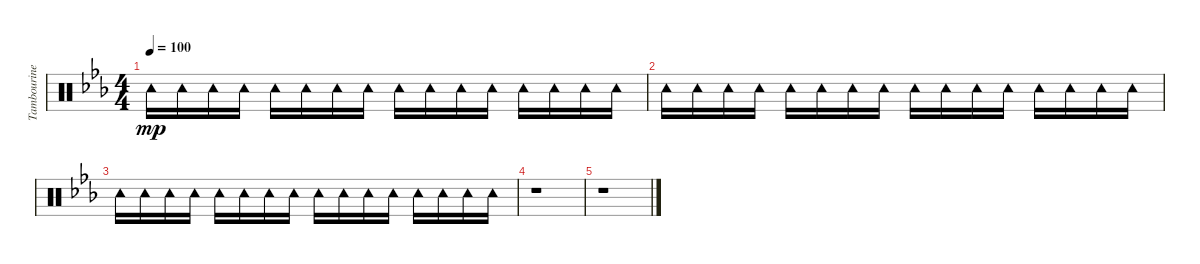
\track ("Tambourine" "Tambourine") {instrument percussion}
\staff {score}
\articulation defaults
\ts (4 4)
\tempo 100
\clef neutral
\ks eb "Tambourine (hit)".16{dy mp} "Tambourine (hit)".16 "Tambourine (hit)".16 "Tambourine (hit)".16 "Tambourine (hit)".16 "Tambourine (hit)".16 "Tambourine (hit)".16 "Tambourine (hit)".16 "Tambourine (hit)".16 "Tambourine (hit)".16 "Tambourine (hit)".16 "Tambourine (hit)".16 "Tambourine (hit)".16 "Tambourine (hit)".16 "Tambourine (hit)".16 "Tambourine (hit)".16
|
"Tambourine (hit)".16 "Tambourine (hit)".16 "Tambourine (hit)".16 "Tambourine (hit)".16 "Tambourine (hit)".16 "Tambourine (hit)".16 "Tambourine (hit)".16 "Tambourine (hit)".16 "Tambourine (hit)".16 "Tambourine (hit)".16 "Tambourine (hit)".16 "Tambourine (hit)".16 "Tambourine (hit)".16 "Tambourine (hit)".16 "Tambourine (hit)".16 "Tambourine (hit)".16 |
"Tambourine (hit)".16 "Tambourine (hit)".16 "Tambourine (hit)".16 "Tambourine (hit)".16 "Tambourine (hit)".16 "Tambourine (hit)".16 "Tambourine (hit)".16 "Tambourine (hit)".16 "Tambourine (hit)".16 "Tambourine (hit)".16 "Tambourine (hit)".16 "Tambourine (hit)".16 "Tambourine (hit)".16 "Tambourine (hit)".16 "Tambourine (hit)".16 "Tambourine (hit)".16 |
r.1 |
r.1
